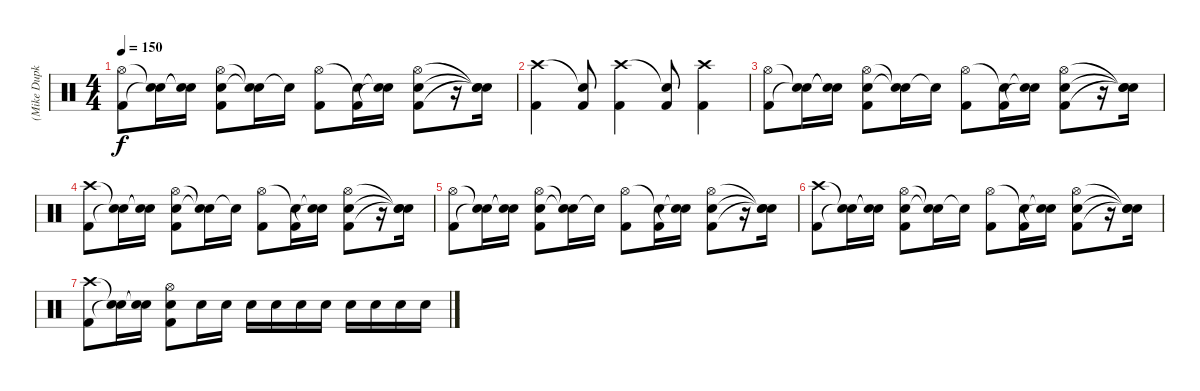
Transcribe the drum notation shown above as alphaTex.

\track ("(Mike Dupke) Drums" "(Mike Dupk") {instrument percussion}
\staff {score}
\articulation defaults
\ts (4 4)
\tempo 150
\clef neutral
\ks c
("Hi-Hat (open)" "Kick (hit) 2").8{dy f} ("Snare (hit)"{t} "Snare (hit)"{t}).16 ("Snare (hit)"{t} "Snare (hit)"{t}).16 ("Hi-Hat (open)" "Snare (hit) 2" "Kick (hit) 2").8 ("Snare (hit)"{t} "Snare (hit)"{t}).16 "Snare (hit)"{t}.16 ("Hi-Hat (open)" "Kick (hit) 2").8 ("Snare (hit)"{t} "Kick (hit) 2").16 ("Snare (hit)"{t} "Snare (hit)"{t}).16 ("Hi-Hat (open)" "Snare (hit) 2" "Kick (hit) 2").8 r.16 ("Snare (hit)"{t} "Snare (hit)"{t} "Snare (hit)"{t}).16 |
("Crash high (hit)" "Kick (hit) 2").4 ("Snare (hit)"{t} "Kick (hit) 2").8 ("Crash high (hit)" "Kick (hit) 2").4 ("Snare (hit)"{t} "Kick (hit) 2").8 ("Crash high (hit)" "Kick (hit) 2").4 |
("Hi-Hat (open)" "Kick (hit) 2").8 ("Snare (hit)"{t} "Snare (hit)"{t}).16 ("Snare (hit)"{t} "Snare (hit)"{t}).16 ("Hi-Hat (open)" "Snare (hit) 2" "Kick (hit) 2").8 ("Snare (hit)"{t} "Snare (hit)"{t}).16 "Snare (hit)"{t}.16 ("Hi-Hat (open)" "Kick (hit) 2").8 ("Snare (hit)"{t} "Kick (hit) 2").16 ("Snare (hit)"{t} "Snare (hit)"{t}).16 ("Hi-Hat (open)" "Snare (hit) 2" "Kick (hit) 2").8 r.16 ("Snare (hit)"{t} "Snare (hit)"{t} "Snare (hit)"{t}).16 |
("Crash high (hit)" "Kick (hit) 2").8 ("Snare (hit)"{t} "Snare (hit)"{t}).16 ("Snare (hit)"{t} "Snare (hit)"{t}).16 ("Hi-Hat (open)" "Snare (hit) 2" "Kick (hit) 2").8 ("Snare (hit)"{t} "Snare (hit)"{t}).16 "Snare (hit)"{t}.16 ("Hi-Hat (open)" "Kick (hit) 2").8 ("Snare (hit)"{t} "Kick (hit) 2").16 ("Snare (hit)"{t} "Snare (hit)"{t}).16 ("Hi-Hat (open)" "Snare (hit) 2" "Kick (hit) 2").8 r.16 ("Snare (hit)"{t} "Snare (hit)"{t} "Snare (hit)"{t}).16 |
("Hi-Hat (open)" "Kick (hit) 2").8 ("Snare (hit)"{t} "Snare (hit)"{t}).16 ("Snare (hit)"{t} "Snare (hit)"{t}).16 ("Hi-Hat (open)" "Snare (hit) 2" "Kick (hit) 2").8 ("Snare (hit)"{t} "Snare (hit)"{t}).16 "Snare (hit)"{t}.16 ("Hi-Hat (open)" "Kick (hit) 2").8 ("Snare (hit)"{t} "Kick (hit) 2").16 ("Snare (hit)"{t} "Snare (hit)"{t}).16 ("Hi-Hat (open)" "Snare (hit) 2" "Kick (hit) 2").8 r.16 ("Snare (hit)"{t} "Snare (hit)"{t} "Snare (hit)"{t}).16 |
("Crash high (hit)" "Kick (hit) 2").8 ("Snare (hit)"{t} "Snare (hit)"{t}).16 ("Snare (hit)"{t} "Snare (hit)"{t}).16 ("Hi-Hat (open)" "Snare (hit) 2" "Kick (hit) 2").8 ("Snare (hit)"{t} "Snare (hit)"{t}).16 "Snare (hit)"{t}.16 ("Hi-Hat (open)" "Kick (hit) 2").8 ("Snare (hit)"{t} "Kick (hit) 2").16 ("Snare (hit)"{t} "Snare (hit)"{t}).16 ("Hi-Hat (open)" "Snare (hit) 2" "Kick (hit) 2").8 r.16 ("Snare (hit)"{t} "Snare (hit)"{t} "Snare (hit)"{t}).16 |
("Crash high (hit)" "Kick (hit) 2").8 ("Snare (hit)"{t} "Snare (hit)"{t}).16 ("Snare (hit)"{t} "Snare (hit)"{t}).16 ("Hi-Hat (open)" "Snare (hit) 2" "Kick (hit) 2").8 "Snare (hit) 2".16 "Snare (hit) 2".16 "Snare (hit) 2".16 "Snare (hit) 2".16 "Snare (hit) 2".16 "Snare (hit) 2".16 "Snare (hit) 2".16 "Snare (hit) 2".16 "Snare (hit) 2".16 "Snare (hit) 2".16
